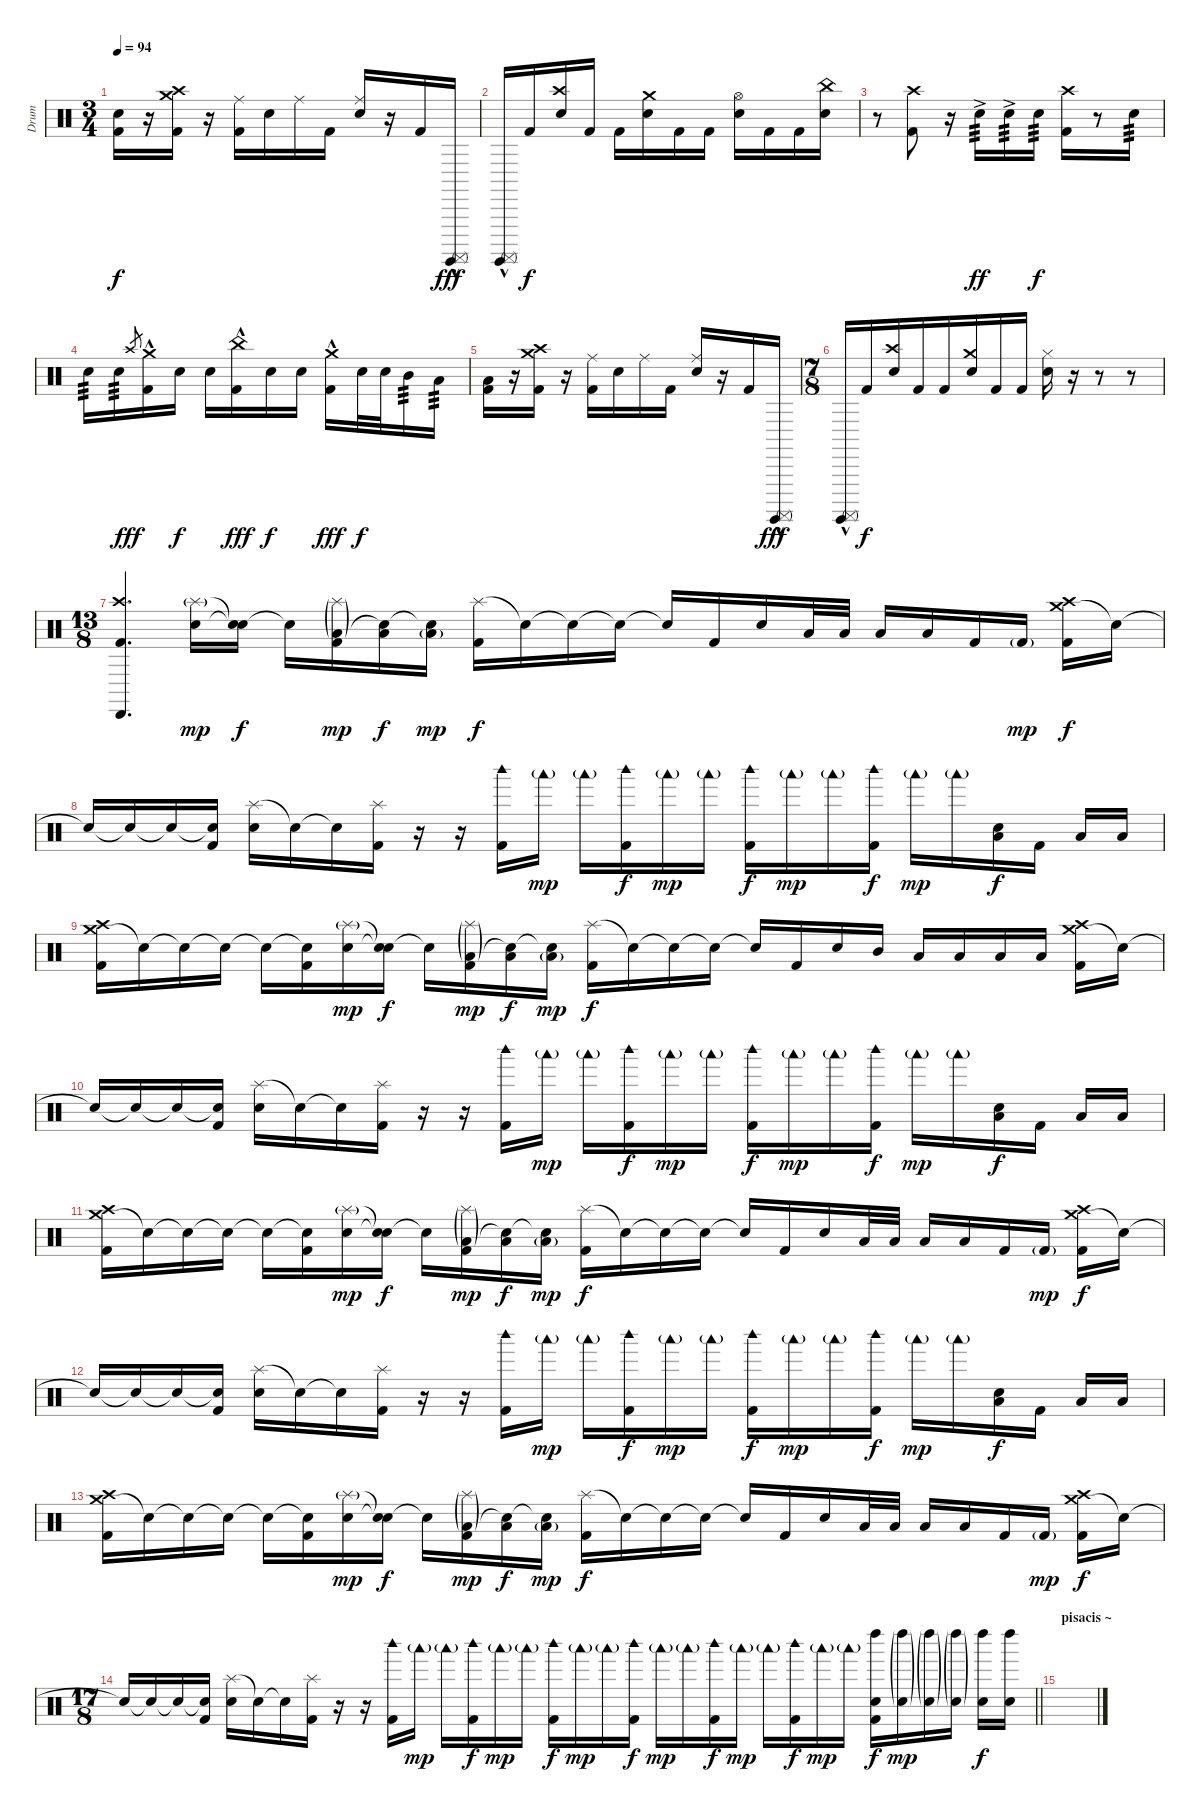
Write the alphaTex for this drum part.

\track ("Drum" "Drum") {instrument percussion}
\staff {score}
\articulation defaults
\ts (3 4)
\tempo 94
\clef neutral
\ks c
("Electric Snare (hit)" "Kick (hit) 2").16{dy f} r.16 ("Crash medium (hit)" "Crash high (hit)" "Kick (hit) 2").16 r.16 ("Ride (middle)" "Kick (hit) 2").16 "Electric Snare (hit)".16 "Ride (middle)".16 "Kick (hit) 2".16 ("Ride (middle)" "Electric Snare (hit)").16 r.16 "Kick (hit) 2".16 ("Surdo (mute)"{hac} "Surdo (hit)"{hac}).16{dy fff} |
("Surdo (mute)"{hac} "Surdo (hit)"{hac}).16 "Kick (hit) 2".16{dy f} ("Crash high (hit)" "Electric Snare (hit)").16 "Kick (hit) 2".16 "Kick (hit) 2".16 ("Crash medium (hit)" "Electric Snare (hit)").16 "Kick (hit) 2".16 "Kick (hit) 2".16 ("Hi-Hat (open)" "Electric Snare (hit)").16 "Kick (hit) 2".16 "Kick (hit) 2".16 ("China (hit)" "Electric Snare (hit)").16 |
r.8 ("Crash high (hit)" "Kick (hit) 2").8 r.16 "Electric Snare (hit)"{ac}.16{tp 3 dy ff} "Electric Snare (hit)"{ac}.16{tp 3} "Electric Snare (hit)".16{tp 3 dy f} ("Crash high (hit)" "Kick (hit) 2").16 r.8 "Electric Snare (hit)".16{tp 3} |
"Electric Snare (hit)".16{tp 3} "Electric Snare (hit)".16{tp 3} "Crash high (hit)"{x}.8{gr dy fff} ("Crash medium (hit)"{hac} "Kick (hit) 2").16 "Electric Snare (hit)".16{dy f} "Electric Snare (hit)".16 ("China (hit)"{hac} "Kick (hit) 2").16{dy fff} "Electric Snare (hit)".16{dy f} "Electric Snare (hit)".16 ("Crash medium (hit)"{hac} "Kick (hit) 2").16{dy fff} "Electric Snare (hit)".32{dy f} "Electric Snare (hit)".32 "Mid Tom (hit)".16{tp 3} "Low Tom (hit)".16{tp 3} |
("Low Tom (hit)" "Kick (hit) 2").16 r.16 ("Crash medium (hit)" "Crash high (hit)" "Kick (hit) 2").16 r.16 ("Ride (middle)" "Kick (hit) 2").16 "Electric Snare (hit)".16 "Ride (middle)".16 "Kick (hit) 2".16 ("Ride (middle)" "Electric Snare (hit)").16 r.16 "Kick (hit) 2".16 ("Surdo (mute)"{hac} "Surdo (hit)"{hac}).16{dy fff} |
\ts (7 8)
("Surdo (mute)"{hac} "Surdo (hit)"{hac}).16 "Kick (hit) 2".16{dy f} ("Crash high (hit)" "Electric Snare (hit)").16 "Kick (hit) 2".16 "Kick (hit) 2".16 ("Crash medium (hit)" "Electric Snare (hit)").16 "Kick (hit) 2".16 "Kick (hit) 2".16 ("Hi-Hat (closed)" "Electric Snare (hit)").16 r.16 r.8 r.8 |
\ts (13 8)
("Crash high (hit)" "Cabasa (hit)" "Kick (hit) 2").4{d} ("Splash (hit)"{g} "Electric Snare (hit)").16{dy mp} ("Snare (hit)"{t} "Snare (hit)"{t}).16{dy f} "Snare (hit)"{t}.16 ("Splash (hit)"{g} "Low Tom (hit)"{g} "Kick (hit) 2").16{dy mp} ("Low Tom (hit)" "Snare (hit)"{t}).16{dy f} ("Low Floor Tom (hit)"{g} "Snare (hit)"{t}).16{dy mp} ("Splash (hit)" "Kick (hit) 2").16{dy f} "Snare (hit)"{t}.16 "Snare (hit)"{t}.16 "Snare (hit)"{t}.16 "Snare (hit)"{t}.16 "Kick (hit) 2".16 "Electric Snare (hit)".16 "Low Floor Tom (hit)".32 "Low Floor Tom (hit)".32 "Low Floor Tom (hit)".16 "Low Floor Tom (hit)".16 "Kick (hit) 2".16 "Kick (hit) 2"{g}.16{dy mp} ("Crash medium (hit)" "Crash high (hit)" "Kick (hit) 2").16{dy f} "Snare (hit)"{t}.16 |
"Snare (hit)"{t}.16 "Snare (hit)"{t}.16 "Snare (hit)"{t}.16 ("Snare (hit)"{t} "Kick (hit) 2").16 ("Splash (hit)" "Electric Snare (hit)").16 "Snare (hit)"{t}.16 "Snare (hit)"{t}.16 ("Splash (hit)" "Kick (hit) 2").16 r.16 r.16 ("Woodblock high (hit)" "Kick (hit) 2").16 "Woodblock low (hit)"{g}.16{dy mp} "Woodblock low (hit)"{g}.16 ("Woodblock high (hit)" "Kick (hit) 2").16{dy f} "Woodblock low (hit)"{g}.16{dy mp} "Woodblock low (hit)"{g}.16 ("Woodblock high (hit)" "Kick (hit) 2").16{dy f} "Woodblock low (hit)"{g}.16{dy mp} "Woodblock low (hit)"{g}.16 ("Woodblock high (hit)" "Kick (hit) 2").16{dy f} "Woodblock low (hit)"{g}.16{dy mp} "Woodblock low (hit)"{g}.16 ("Low Floor Tom (hit)" "Electric Snare (hit)").16{dy f} "Kick (hit) 2".16 "Low Tom (hit)".16 "Low Floor Tom (hit)".16 |
("Crash medium (hit)" "Crash high (hit)" "Kick (hit) 2").16 "Snare (hit)"{t}.16 "Snare (hit)"{t}.16 "Snare (hit)"{t}.16 "Snare (hit)"{t}.16 ("Snare (hit)"{t} "Kick (hit) 2").16 ("Splash (hit)"{g} "Electric Snare (hit)").16{dy mp} ("Snare (hit)"{t} "Snare (hit)"{t}).16{dy f} "Snare (hit)"{t}.16 ("Splash (hit)"{g} "Low Tom (hit)"{g} "Kick (hit) 2").16{dy mp} ("Low Tom (hit)" "Snare (hit)"{t}).16{dy f} ("Low Floor Tom (hit)"{g} "Snare (hit)"{t}).16{dy mp} ("Splash (hit)" "Kick (hit) 2").16{dy f} "Snare (hit)"{t}.16 "Snare (hit)"{t}.16 "Snare (hit)"{t}.16 "Snare (hit)"{t}.16 "Kick (hit) 2".16 "Electric Snare (hit)".16 "Mid Tom (hit)".16 "Low Floor Tom (hit)".16 "Low Tom (hit)".16 "Low Floor Tom (hit)".16 "Low Floor Tom (hit)".16 ("Crash medium (hit)" "Crash high (hit)" "Kick (hit) 2").16 "Snare (hit)"{t}.16 |
"Snare (hit)"{t}.16 "Snare (hit)"{t}.16 "Snare (hit)"{t}.16 ("Snare (hit)"{t} "Kick (hit) 2").16 ("Splash (hit)" "Electric Snare (hit)").16 "Snare (hit)"{t}.16 "Snare (hit)"{t}.16 ("Splash (hit)" "Kick (hit) 2").16 r.16 r.16 ("Woodblock high (hit)" "Kick (hit) 2").16 "Woodblock low (hit)"{g}.16{dy mp} "Woodblock low (hit)"{g}.16 ("Woodblock high (hit)" "Kick (hit) 2").16{dy f} "Woodblock low (hit)"{g}.16{dy mp} "Woodblock low (hit)"{g}.16 ("Woodblock high (hit)" "Kick (hit) 2").16{dy f} "Woodblock low (hit)"{g}.16{dy mp} "Woodblock low (hit)"{g}.16 ("Woodblock high (hit)" "Kick (hit) 2").16{dy f} "Woodblock low (hit)"{g}.16{dy mp} "Woodblock low (hit)"{g}.16 ("Low Floor Tom (hit)" "Electric Snare (hit)").16{dy f} "Kick (hit) 2".16 "Low Tom (hit)".16 "Low Floor Tom (hit)".16 |
("Crash medium (hit)" "Crash high (hit)" "Kick (hit) 2").16 "Snare (hit)"{t}.16 "Snare (hit)"{t}.16 "Snare (hit)"{t}.16 "Snare (hit)"{t}.16 ("Snare (hit)"{t} "Kick (hit) 2").16 ("Splash (hit)"{g} "Electric Snare (hit)").16{dy mp} ("Snare (hit)"{t} "Snare (hit)"{t}).16{dy f} "Snare (hit)"{t}.16 ("Splash (hit)"{g} "Low Tom (hit)"{g} "Kick (hit) 2").16{dy mp} ("Low Tom (hit)" "Snare (hit)"{t}).16{dy f} ("Low Floor Tom (hit)"{g} "Snare (hit)"{t}).16{dy mp} ("Splash (hit)" "Kick (hit) 2").16{dy f} "Snare (hit)"{t}.16 "Snare (hit)"{t}.16 "Snare (hit)"{t}.16 "Snare (hit)"{t}.16 "Kick (hit) 2".16 "Electric Snare (hit)".16 "Low Floor Tom (hit)".32 "Low Floor Tom (hit)".32 "Low Floor Tom (hit)".16 "Low Floor Tom (hit)".16 "Kick (hit) 2".16 "Kick (hit) 2"{g}.16{dy mp} ("Crash medium (hit)" "Crash high (hit)" "Kick (hit) 2").16{dy f} "Snare (hit)"{t}.16 |
"Snare (hit)"{t}.16 "Snare (hit)"{t}.16 "Snare (hit)"{t}.16 ("Snare (hit)"{t} "Kick (hit) 2").16 ("Splash (hit)" "Electric Snare (hit)").16 "Snare (hit)"{t}.16 "Snare (hit)"{t}.16 ("Splash (hit)" "Kick (hit) 2").16 r.16 r.16 ("Woodblock high (hit)" "Kick (hit) 2").16 "Woodblock low (hit)"{g}.16{dy mp} "Woodblock low (hit)"{g}.16 ("Woodblock high (hit)" "Kick (hit) 2").16{dy f} "Woodblock low (hit)"{g}.16{dy mp} "Woodblock low (hit)"{g}.16 ("Woodblock high (hit)" "Kick (hit) 2").16{dy f} "Woodblock low (hit)"{g}.16{dy mp} "Woodblock low (hit)"{g}.16 ("Woodblock high (hit)" "Kick (hit) 2").16{dy f} "Woodblock low (hit)"{g}.16{dy mp} "Woodblock low (hit)"{g}.16 ("Low Floor Tom (hit)" "Electric Snare (hit)").16{dy f} "Kick (hit) 2".16 "Low Tom (hit)".16 "Low Floor Tom (hit)".16 |
("Crash medium (hit)" "Crash high (hit)" "Kick (hit) 2").16 "Snare (hit)"{t}.16 "Snare (hit)"{t}.16 "Snare (hit)"{t}.16 "Snare (hit)"{t}.16 ("Snare (hit)"{t} "Kick (hit) 2").16 ("Splash (hit)"{g} "Electric Snare (hit)").16{dy mp} ("Snare (hit)"{t} "Snare (hit)"{t}).16{dy f} "Snare (hit)"{t}.16 ("Splash (hit)"{g} "Low Tom (hit)"{g} "Kick (hit) 2").16{dy mp} ("Low Tom (hit)" "Snare (hit)"{t}).16{dy f} ("Low Floor Tom (hit)"{g} "Snare (hit)"{t}).16{dy mp} ("Splash (hit)" "Kick (hit) 2").16{dy f} "Snare (hit)"{t}.16 "Snare (hit)"{t}.16 "Snare (hit)"{t}.16 "Snare (hit)"{t}.16 "Kick (hit) 2".16 "Electric Snare (hit)".16 "Low Floor Tom (hit)".32 "Low Floor Tom (hit)".32 "Low Floor Tom (hit)".16 "Low Floor Tom (hit)".16 "Kick (hit) 2".16 "Kick (hit) 2"{g}.16{dy mp} ("Crash medium (hit)" "Crash high (hit)" "Kick (hit) 2").16{dy f} "Snare (hit)"{t}.16 |
\ts (17 8)
\barLineRight lightlight "Snare (hit)"{t}.16 "Snare (hit)"{t}.16 "Snare (hit)"{t}.16
("Snare (hit)"{t} "Kick (hit) 2").16 ("Splash (hit)" "Electric Snare (hit)").16 "Snare (hit)"{t}.16 "Snare (hit)"{t}.16 ("Splash (hit)" "Kick (hit) 2").16 r.16 r.16 ("Woodblock high (hit)" "Kick (hit) 2").16 "Woodblock low (hit)"{g}.16{dy mp} "Woodblock low (hit)"{g}.16 ("Woodblock high (hit)" "Kick (hit) 2").16{dy f} "Woodblock low (hit)"{g}.16{dy mp} "Woodblock low (hit)"{g}.16 ("Woodblock high (hit)" "Kick (hit) 2").16{dy f} "Woodblock low (hit)"{g}.16{dy mp} "Woodblock low (hit)"{g}.16 ("Woodblock high (hit)" "Kick (hit) 2").16{dy f} "Woodblock low (hit)"{g}.16{dy mp} "Woodblock low (hit)"{g}.16 ("Woodblock high (hit)" "Kick (hit) 2").16{dy f} "Woodblock low (hit)"{g}.16{dy mp} "Woodblock low (hit)"{g}.16 ("Woodblock high (hit)" "Kick (hit) 2").16{dy f} "Woodblock low (hit)"{g}.16{dy mp} "Woodblock low (hit)"{g}.16 ("Left Maraca (hit)" "Electric Snare (hit)" "Kick (hit) 2").16{dy f} ("Left Maraca (hit)"{g} "Electric Snare (hit)"{g}).16{dy mp} ("Left Maraca (hit)"{g} "Electric Snare (hit)"{g}).16 ("Left Maraca (hit)"{g} "Electric Snare (hit)"{g}).16 ("Left Maraca (hit)" "Electric Snare (hit)").16{dy f} ("Left Maraca (hit)" "Electric Snare (hit)").16 |
\section ("" "pisacis ~")
